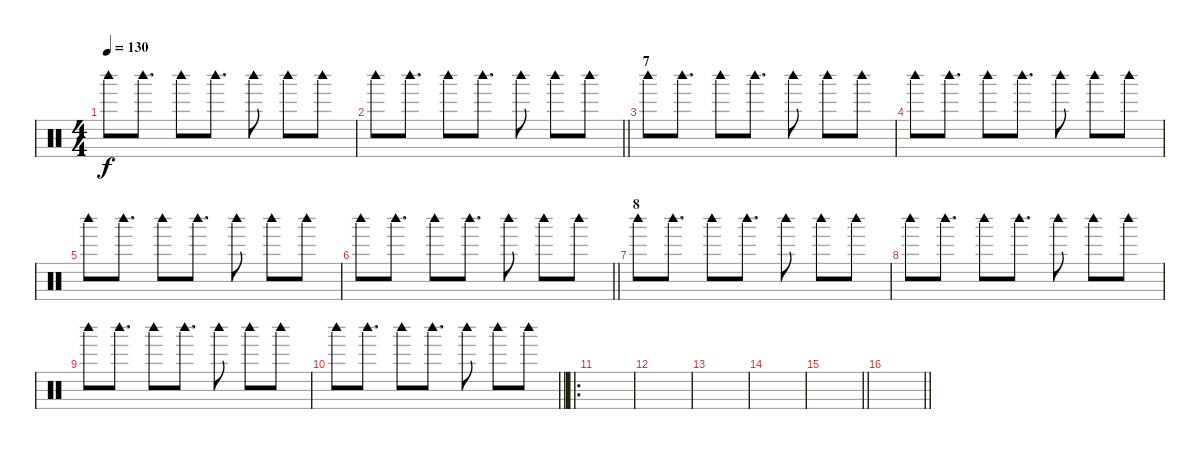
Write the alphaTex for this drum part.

\track "" {instrument percussion}
\staff {score}
\articulation defaults
\ts (4 4)
\tempo 130
\clef neutral
\ks c "Woodblock high (hit)".8{dy f} "Woodblock high (hit)".8{d} "Woodblock high (hit)".8 "Woodblock high (hit)".8{d} "Woodblock high (hit)".8 "Woodblock high (hit)".8 "Woodblock high (hit)".8
|
\barLineRight lightlight "Woodblock high (hit)".8 "Woodblock high (hit)".8{d} "Woodblock high (hit)".8 "Woodblock high (hit)".8{d} "Woodblock high (hit)".8 "Woodblock high (hit)".8 "Woodblock high (hit)".8
|
\section ("" "7")
"Woodblock high (hit)".8 "Woodblock high (hit)".8{d} "Woodblock high (hit)".8 "Woodblock high (hit)".8{d} "Woodblock high (hit)".8 "Woodblock high (hit)".8 "Woodblock high (hit)".8 |
"Woodblock high (hit)".8 "Woodblock high (hit)".8{d} "Woodblock high (hit)".8 "Woodblock high (hit)".8{d} "Woodblock high (hit)".8 "Woodblock high (hit)".8 "Woodblock high (hit)".8 |
"Woodblock high (hit)".8 "Woodblock high (hit)".8{d} "Woodblock high (hit)".8 "Woodblock high (hit)".8{d} "Woodblock high (hit)".8 "Woodblock high (hit)".8 "Woodblock high (hit)".8 |
\barLineRight lightlight "Woodblock high (hit)".8 "Woodblock high (hit)".8{d} "Woodblock high (hit)".8 "Woodblock high (hit)".8{d} "Woodblock high (hit)".8 "Woodblock high (hit)".8 "Woodblock high (hit)".8
|
\section ("" "8")
"Woodblock high (hit)".8 "Woodblock high (hit)".8{d} "Woodblock high (hit)".8 "Woodblock high (hit)".8{d} "Woodblock high (hit)".8 "Woodblock high (hit)".8 "Woodblock high (hit)".8 |
"Woodblock high (hit)".8 "Woodblock high (hit)".8{d} "Woodblock high (hit)".8 "Woodblock high (hit)".8{d} "Woodblock high (hit)".8 "Woodblock high (hit)".8 "Woodblock high (hit)".8 |
"Woodblock high (hit)".8 "Woodblock high (hit)".8{d} "Woodblock high (hit)".8 "Woodblock high (hit)".8{d} "Woodblock high (hit)".8 "Woodblock high (hit)".8 "Woodblock high (hit)".8 |
\barLineRight lightlight "Woodblock high (hit)".8 "Woodblock high (hit)".8{d} "Woodblock high (hit)".8 "Woodblock high (hit)".8{d} "Woodblock high (hit)".8 "Woodblock high (hit)".8 "Woodblock high (hit)".8
|
\ro
\section ("" "")
|
|
|
|
\barLineRight lightlight
|
\barLineRight lightlight
